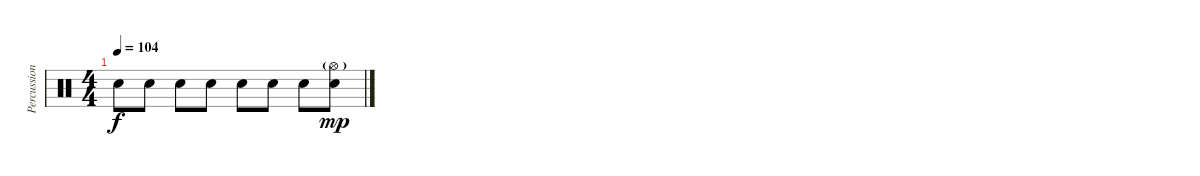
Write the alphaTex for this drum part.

\track ("Percussion" "Percussion") {instrument percussion}
\staff {score}
\articulation defaults
\ts (4 4)
\tempo 104
\clef neutral
\ks c "Electric Snare (hit)".8{dy f} "Electric Snare (hit)".8 "Electric Snare (hit)".8 "Electric Snare (hit)".8 "Electric Snare (hit)".8 "Electric Snare (hit)".8 "Electric Snare (hit)".8
("Hi-Hat (open)"{g} "Electric Snare (hit)").8{dy mp}
